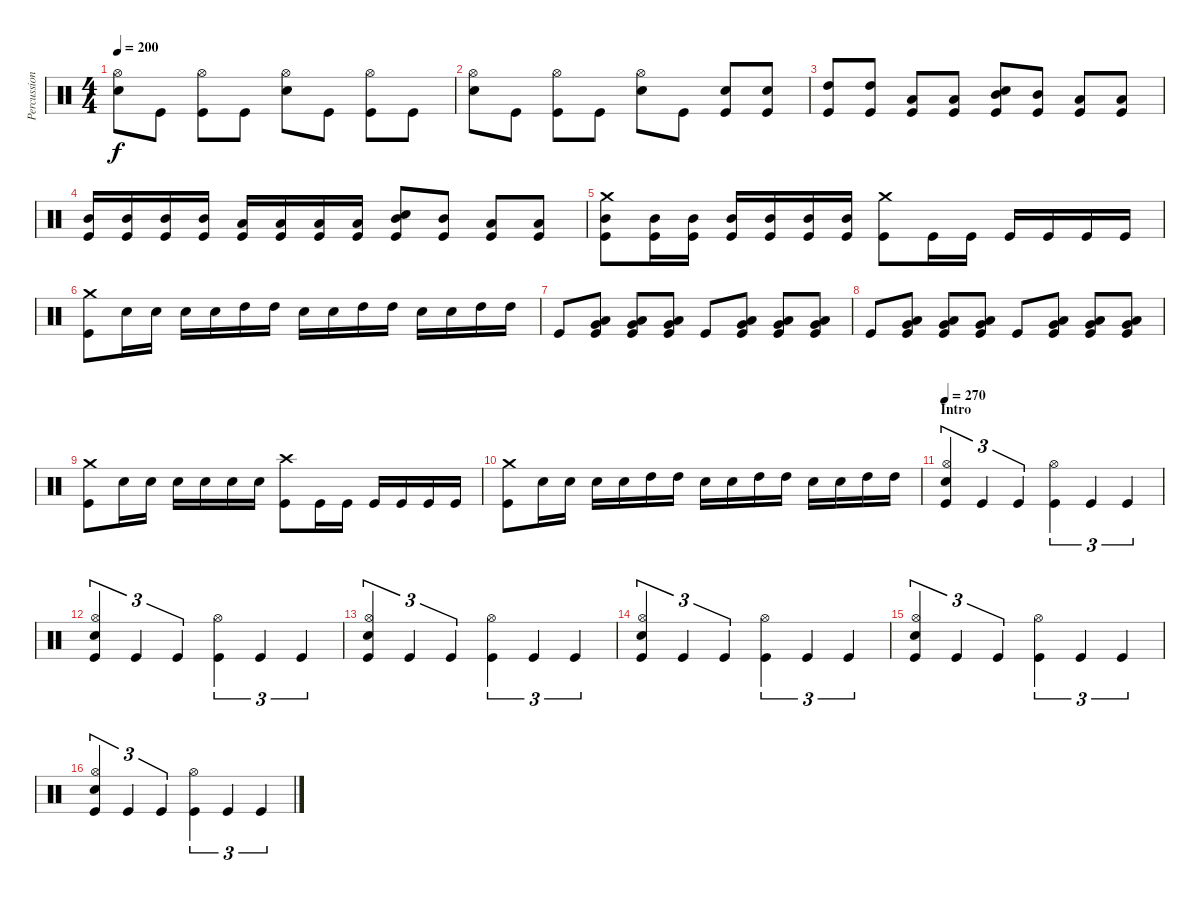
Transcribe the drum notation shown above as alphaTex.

\track ("Percussion" "Percussion") {instrument percussion}
\staff {score}
\articulation defaults
\ts (4 4)
\tempo 200
\clef neutral
\ks c
("Snare (hit) 2" "Hi-Hat (open)").8{dy f} "Kick (hit)".8 ("Hi-Hat (open)" "Kick (hit)").8 "Kick (hit)".8 ("Snare (hit) 2" "Hi-Hat (open)").8 "Kick (hit)".8 ("Hi-Hat (open)" "Kick (hit)").8 "Kick (hit)".8 |
("Snare (hit) 2" "Hi-Hat (open)").8 "Kick (hit)".8 ("Hi-Hat (open)" "Kick (hit)").8 "Kick (hit)".8 ("Snare (hit) 2" "Hi-Hat (open)").8 "Kick (hit)".8 ("Snare (hit) 2" "Kick (hit)").8 ("Snare (hit) 2" "Kick (hit)").8 |
("High Tom (hit)" "Kick (hit)").8 ("High Tom (hit)" "Kick (hit)").8 ("Low Tom (hit)" "Kick (hit)").8 ("Low Tom (hit)" "Kick (hit)").8 ("Snare (hit) 2" "Mid Tom (hit)" "Kick (hit)").8 ("Mid Tom (hit)" "Kick (hit)").8 ("Low Tom (hit)" "Kick (hit)").8 ("Low Tom (hit)" "Kick (hit)").8 |
("Mid Tom (hit)" "Kick (hit)").16 ("Mid Tom (hit)" "Kick (hit)").16 ("Mid Tom (hit)" "Kick (hit)").16 ("Mid Tom (hit)" "Kick (hit)").16 ("Low Tom (hit)" "Kick (hit)").16 ("Low Tom (hit)" "Kick (hit)").16 ("Low Tom (hit)" "Kick (hit)").16 ("Low Tom (hit)" "Kick (hit)").16 ("Snare (hit) 2" "Mid Tom (hit)" "Kick (hit)").8 ("Mid Tom (hit)" "Kick (hit)").8 ("Low Tom (hit)" "Kick (hit)").8 ("Low Tom (hit)" "Kick (hit)").8 |
("Crash medium (hit)" "Mid Tom (hit)" "Kick (hit)").8 ("Mid Tom (hit)" "Kick (hit)").16 ("Mid Tom (hit)" "Kick (hit)").16 ("Mid Tom (hit)" "Kick (hit)").16 ("Mid Tom (hit)" "Kick (hit)").16 ("Mid Tom (hit)" "Kick (hit)").16 ("Mid Tom (hit)" "Kick (hit)").16 ("Crash medium (hit)" "Kick (hit)").8 "Kick (hit)".16 "Kick (hit)".16 "Kick (hit)".16 "Kick (hit)".16 "Kick (hit)".16 "Kick (hit)".16 |
("Crash medium (hit)" "Kick (hit)").8 "Snare (hit) 2".16 "Snare (hit) 2".16 "Snare (hit) 2".16 "Snare (hit) 2".16 "High Tom (hit)".16 "High Tom (hit)".16 "Snare (hit) 2".16 "Snare (hit) 2".16 "High Tom (hit)".16 "High Tom (hit)".16 "Snare (hit) 2".16 "Snare (hit) 2".16 "High Tom (hit)".16 "High Tom (hit)".16 |
"Kick (hit)".8 ("Low Tom (hit)" "Very Low Tom (hit)" "Kick (hit)").8 ("Low Tom (hit)" "Very Low Tom (hit)" "Kick (hit)").8 ("Low Tom (hit)" "Very Low Tom (hit)" "Kick (hit)").8 "Kick (hit)".8 ("Low Tom (hit)" "Very Low Tom (hit)" "Kick (hit)").8 ("Low Tom (hit)" "Very Low Tom (hit)" "Kick (hit)").8 ("Low Tom (hit)" "Very Low Tom (hit)" "Kick (hit)").8 |
"Kick (hit)".8 ("Low Tom (hit)" "Very Low Tom (hit)" "Kick (hit)").8 ("Low Tom (hit)" "Very Low Tom (hit)" "Kick (hit)").8 ("Low Tom (hit)" "Very Low Tom (hit)" "Kick (hit)").8 "Kick (hit)".8 ("Low Tom (hit)" "Very Low Tom (hit)" "Kick (hit)").8 ("Low Tom (hit)" "Very Low Tom (hit)" "Kick (hit)").8 ("Low Tom (hit)" "Very Low Tom (hit)" "Kick (hit)").8 |
("Crash medium (hit)" "Kick (hit)").8 "Snare (hit) 2".16 "Snare (hit) 2".16 "Snare (hit) 2".16 "Snare (hit) 2".16 "Snare (hit) 2".16 "Snare (hit) 2".16 ("Crash high (hit)" "Kick (hit)").8 "Kick (hit)".16 "Kick (hit)".16 "Kick (hit)".16 "Kick (hit)".16 "Kick (hit)".16 "Kick (hit)".16 |
("Crash medium (hit)" "Kick (hit)").8 "Snare (hit) 2".16 "Snare (hit) 2".16 "Snare (hit) 2".16 "Snare (hit) 2".16 "High Tom (hit)".16 "High Tom (hit)".16 "Snare (hit) 2".16 "Snare (hit) 2".16 "High Tom (hit)".16 "High Tom (hit)".16 "Snare (hit) 2".16 "Snare (hit) 2".16 "High Tom (hit)".16 "High Tom (hit)".16 |
\section ("" "Intro")
\tempo 270
("Snare (hit) 2" "Hi-Hat (open)" "Kick (hit)").4{tu (3 2)} "Kick (hit)".4{tu (3 2)} "Kick (hit)".4{tu (3 2)} ("Hi-Hat (open)" "Kick (hit)").4{tu (3 2)} "Kick (hit)".4{tu (3 2)} "Kick (hit)".4{tu (3 2)} |
("Snare (hit) 2" "Hi-Hat (open)" "Kick (hit)").4{tu (3 2)} "Kick (hit)".4{tu (3 2)} "Kick (hit)".4{tu (3 2)} ("Hi-Hat (open)" "Kick (hit)").4{tu (3 2)} "Kick (hit)".4{tu (3 2)} "Kick (hit)".4{tu (3 2)} |
("Snare (hit) 2" "Hi-Hat (open)" "Kick (hit)").4{tu (3 2)} "Kick (hit)".4{tu (3 2)} "Kick (hit)".4{tu (3 2)} ("Hi-Hat (open)" "Kick (hit)").4{tu (3 2)} "Kick (hit)".4{tu (3 2)} "Kick (hit)".4{tu (3 2)} |
("Snare (hit) 2" "Hi-Hat (open)" "Kick (hit)").4{tu (3 2)} "Kick (hit)".4{tu (3 2)} "Kick (hit)".4{tu (3 2)} ("Hi-Hat (open)" "Kick (hit)").4{tu (3 2)} "Kick (hit)".4{tu (3 2)} "Kick (hit)".4{tu (3 2)} |
("Snare (hit) 2" "Hi-Hat (open)" "Kick (hit)").4{tu (3 2)} "Kick (hit)".4{tu (3 2)} "Kick (hit)".4{tu (3 2)} ("Hi-Hat (open)" "Kick (hit)").4{tu (3 2)} "Kick (hit)".4{tu (3 2)} "Kick (hit)".4{tu (3 2)} |
("Snare (hit) 2" "Hi-Hat (open)" "Kick (hit)").4{tu (3 2)} "Kick (hit)".4{tu (3 2)} "Kick (hit)".4{tu (3 2)} ("Hi-Hat (open)" "Kick (hit)").4{tu (3 2)} "Kick (hit)".4{tu (3 2)} "Kick (hit)".4{tu (3 2)}
